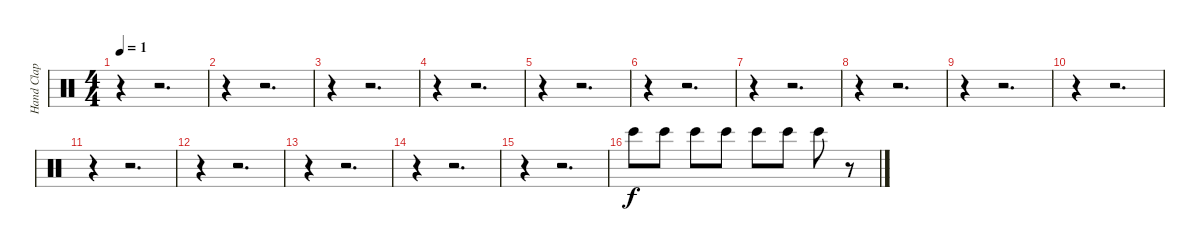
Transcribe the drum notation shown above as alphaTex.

\track ("Hand Clap" "Hand Clap") {instrument percussion}
\staff {score}
\articulation defaults
\ts (4 4)
\tempo 1
\clef neutral
\ks c
r.4{dy f} r.2{d} |
r.4 r.2{d} |
r.4 r.2{d} |
r.4 r.2{d} |
r.4 r.2{d} |
r.4 r.2{d} |
r.4 r.2{d} |
r.4 r.2{d} |
r.4 r.2{d} |
r.4 r.2{d} |
r.4 r.2{d} |
r.4 r.2{d} |
r.4 r.2{d} |
r.4 r.2{d} |
r.4 r.2{d} |
"Bongo High (hit)".8 "Bongo High (hit)".8 "Bongo High (hit)".8 "Bongo High (hit)".8 "Bongo High (hit)".8 "Bongo High (hit)".8 "Bongo High (hit)".8 r.8
